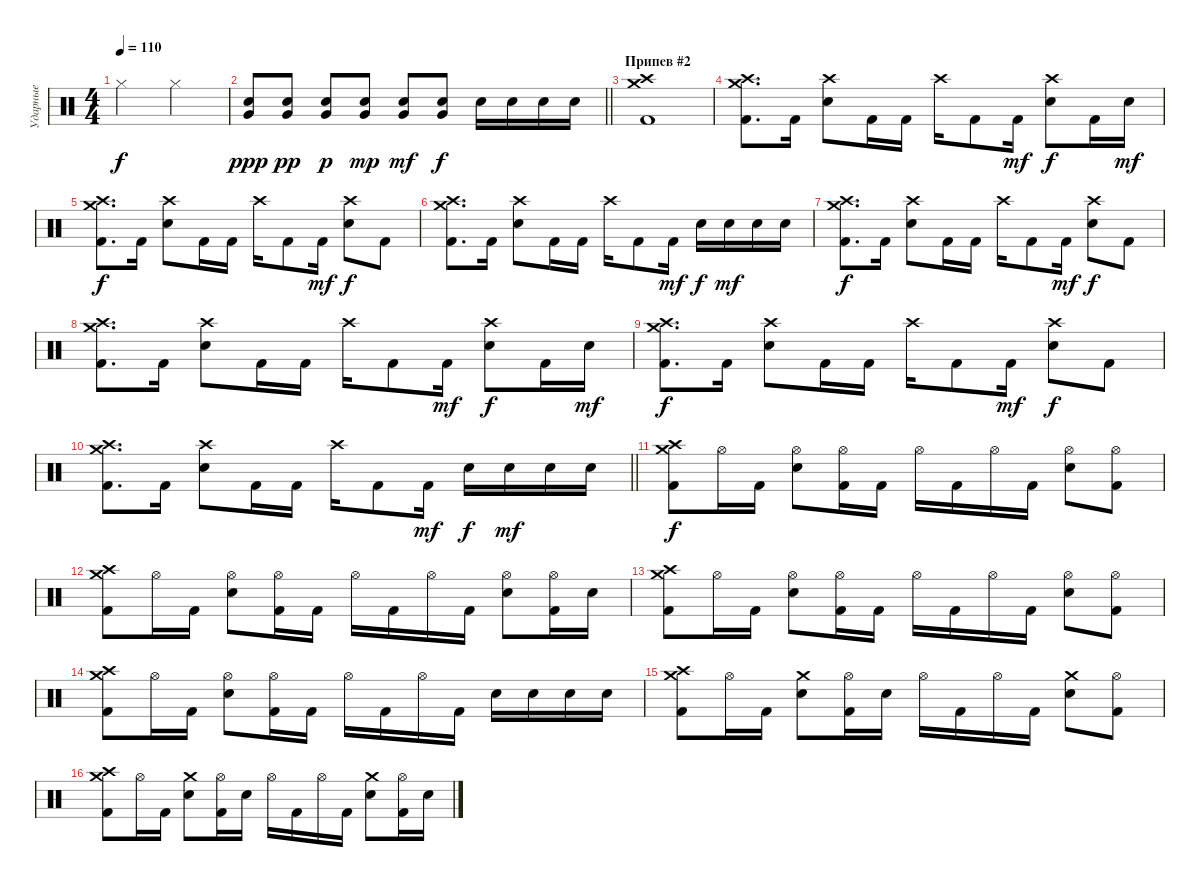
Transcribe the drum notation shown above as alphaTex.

\track ("Ударные" "Ударные") {instrument percussion}
\staff
\articulation defaults
\ts (4 4)
\tempo 110
\clef neutral
\ks c "Hi-Hat (closed)".2{dy f} "Hi-Hat (closed)".2
|
\barLineRight lightlight
("Electric Snare (hit)" "Very Low Tom (hit)").8{dy ppp} ("Electric Snare (hit)" "Very Low Tom (hit)").8{dy pp} ("Electric Snare (hit)" "Very Low Tom (hit)").8{dy p} ("Electric Snare (hit)" "Very Low Tom (hit)").8{dy mp} ("Electric Snare (hit)" "Very Low Tom (hit)").8{dy mf} ("Electric Snare (hit)" "Very Low Tom (hit)").8{dy f} "Electric Snare (hit)".16 "Electric Snare (hit)".16 "Electric Snare (hit)".16 "Electric Snare (hit)".16 |
\section ("" "Припев #2")
("Crash medium (hit)" "Crash high (hit)" "Kick (hit) 2").1 |
("Crash medium (hit)" "Crash high (hit)" "Kick (hit) 2").8{d} "Kick (hit) 2".16 ("Crash high (hit)" "Electric Snare (hit)").8 "Kick (hit) 2".16 "Kick (hit) 2".16 "Crash high (hit)".16 "Kick (hit) 2".8 "Kick (hit) 2".16{dy mf} ("Crash high (hit)" "Electric Snare (hit)").8{dy f} "Kick (hit) 2".16 "Electric Snare (hit)".16{dy mf} |
("Crash medium (hit)" "Crash high (hit)" "Kick (hit) 2").8{d dy f} "Kick (hit) 2".16 ("Crash high (hit)" "Electric Snare (hit)").8 "Kick (hit) 2".16 "Kick (hit) 2".16 "Crash high (hit)".16 "Kick (hit) 2".8 "Kick (hit) 2".16{dy mf} ("Crash high (hit)" "Electric Snare (hit)").8{dy f} "Kick (hit) 2".8 |
("Crash medium (hit)" "Crash high (hit)" "Kick (hit) 2").8{d} "Kick (hit) 2".16 ("Crash high (hit)" "Electric Snare (hit)").8 "Kick (hit) 2".16 "Kick (hit) 2".16 "Crash high (hit)".16 "Kick (hit) 2".8 "Kick (hit) 2".16{dy mf} "Electric Snare (hit)".16{dy f} "Electric Snare (hit)".16{dy mf} "Electric Snare (hit)".16 "Electric Snare (hit)".16 |
("Crash medium (hit)" "Crash high (hit)" "Kick (hit) 2").8{d dy f} "Kick (hit) 2".16 ("Crash high (hit)" "Electric Snare (hit)").8 "Kick (hit) 2".16 "Kick (hit) 2".16 "Crash high (hit)".16 "Kick (hit) 2".8 "Kick (hit) 2".16{dy mf} ("Crash high (hit)" "Electric Snare (hit)").8{dy f} "Kick (hit) 2".8 |
("Crash medium (hit)" "Crash high (hit)" "Kick (hit) 2").8{d} "Kick (hit) 2".16 ("Crash high (hit)" "Electric Snare (hit)").8 "Kick (hit) 2".16 "Kick (hit) 2".16 "Crash high (hit)".16 "Kick (hit) 2".8 "Kick (hit) 2".16{dy mf} ("Crash high (hit)" "Electric Snare (hit)").8{dy f} "Kick (hit) 2".16 "Electric Snare (hit)".16{dy mf} |
("Crash medium (hit)" "Crash high (hit)" "Kick (hit) 2").8{d dy f} "Kick (hit) 2".16 ("Crash high (hit)" "Electric Snare (hit)").8 "Kick (hit) 2".16 "Kick (hit) 2".16 "Crash high (hit)".16 "Kick (hit) 2".8 "Kick (hit) 2".16{dy mf} ("Crash high (hit)" "Electric Snare (hit)").8{dy f} "Kick (hit) 2".8 |
\barLineRight lightlight
("Crash medium (hit)" "Crash high (hit)" "Kick (hit) 2").8{d} "Kick (hit) 2".16 ("Crash high (hit)" "Electric Snare (hit)").8 "Kick (hit) 2".16 "Kick (hit) 2".16 "Crash high (hit)".16 "Kick (hit) 2".8 "Kick (hit) 2".16{dy mf} "Electric Snare (hit)".16{dy f} "Electric Snare (hit)".16{dy mf} "Electric Snare (hit)".16 "Electric Snare (hit)".16 |
("Crash high (hit)" "Crash medium (hit)" "Kick (hit) 2").8{dy f} "Hi-Hat (open)".16 "Kick (hit) 2".16 ("Hi-Hat (open)" "Electric Snare (hit)").8 ("Hi-Hat (open)" "Kick (hit) 2").16 "Kick (hit) 2".16 "Hi-Hat (open)".16 "Kick (hit) 2".16 "Hi-Hat (open)".16 "Kick (hit) 2".16 ("Hi-Hat (open)" "Electric Snare (hit)").8 ("Hi-Hat (open)" "Kick (hit) 2").8 |
("Crash high (hit)" "Crash medium (hit)" "Kick (hit) 2").8 "Hi-Hat (open)".16 "Kick (hit) 2".16 ("Hi-Hat (open)" "Electric Snare (hit)").8 ("Hi-Hat (open)" "Kick (hit) 2").16 "Kick (hit) 2".16 "Hi-Hat (open)".16 "Kick (hit) 2".16 "Hi-Hat (open)".16 "Kick (hit) 2".16 ("Hi-Hat (open)" "Electric Snare (hit)").8 ("Hi-Hat (open)" "Kick (hit) 2").16 "Electric Snare (hit)".16 |
("Crash high (hit)" "Crash medium (hit)" "Kick (hit) 2").8 "Hi-Hat (open)".16 "Kick (hit) 2".16 ("Hi-Hat (open)" "Electric Snare (hit)").8 ("Hi-Hat (open)" "Kick (hit) 2").16 "Kick (hit) 2".16 "Hi-Hat (open)".16 "Kick (hit) 2".16 "Hi-Hat (open)".16 "Kick (hit) 2".16 ("Hi-Hat (open)" "Electric Snare (hit)").8 ("Hi-Hat (open)" "Kick (hit) 2").8 |
("Crash high (hit)" "Crash medium (hit)" "Kick (hit) 2").8 "Hi-Hat (open)".16 "Kick (hit) 2".16 ("Hi-Hat (open)" "Electric Snare (hit)").8 ("Hi-Hat (open)" "Kick (hit) 2").16 "Kick (hit) 2".16 "Hi-Hat (open)".16 "Kick (hit) 2".16 "Hi-Hat (open)".16 "Kick (hit) 2".16 "Electric Snare (hit)".16 "Electric Snare (hit)".16 "Electric Snare (hit)".16 "Electric Snare (hit)".16 |
("Crash high (hit)" "Crash medium (hit)" "Kick (hit) 2").8 "Hi-Hat (open)".16 "Kick (hit) 2".16 ("Crash medium (hit)" "Electric Snare (hit)").8 ("Hi-Hat (open)" "Kick (hit) 2").16 "Electric Snare (hit)".16 "Hi-Hat (open)".16 "Kick (hit) 2".16 "Hi-Hat (open)".16 "Kick (hit) 2".16 ("Crash medium (hit)" "Electric Snare (hit)").8 ("Hi-Hat (open)" "Kick (hit) 2").8 |
("Crash high (hit)" "Crash medium (hit)" "Kick (hit) 2").8 "Hi-Hat (open)".16 "Kick (hit) 2".16 ("Crash medium (hit)" "Electric Snare (hit)").8 ("Hi-Hat (open)" "Kick (hit) 2").16 "Electric Snare (hit)".16 "Hi-Hat (open)".16 "Kick (hit) 2".16 "Hi-Hat (open)".16 "Kick (hit) 2".16 ("Crash medium (hit)" "Electric Snare (hit)").8 ("Hi-Hat (open)" "Kick (hit) 2").16 "Electric Snare (hit)".16
